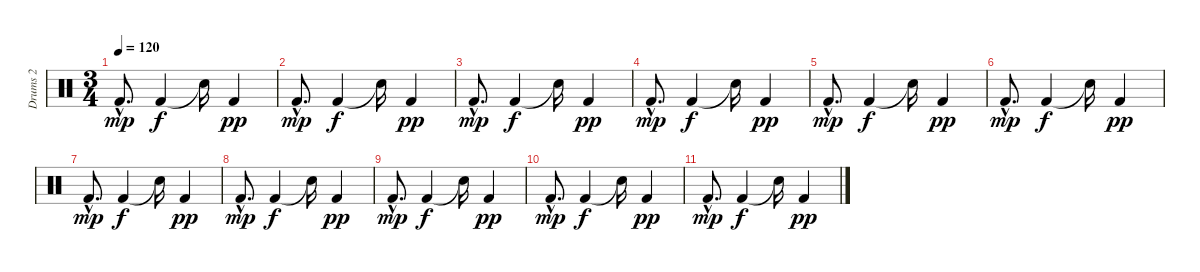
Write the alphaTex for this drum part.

\track ("Drums 2" "Drums 2") {instrument percussion}
\staff {score}
\articulation defaults
\ts (3 4)
\tempo 120
\clef neutral
\ks c "Kick (hit) 2"{hac}.8{d dy mp} "Kick (hit) 2".4{dy f} "Snare (hit)"{t}.16 "Kick (hit) 2".4{dy pp}
|
"Kick (hit) 2"{hac}.8{d dy mp} "Kick (hit) 2".4{dy f} "Snare (hit)"{t}.16 "Kick (hit) 2".4{dy pp} |
"Kick (hit) 2"{hac}.8{d dy mp} "Kick (hit) 2".4{dy f} "Snare (hit)"{t}.16 "Kick (hit) 2".4{dy pp} |
"Kick (hit) 2"{hac}.8{d dy mp} "Kick (hit) 2".4{dy f} "Snare (hit)"{t}.16 "Kick (hit) 2".4{dy pp} |
"Kick (hit) 2"{hac}.8{d dy mp} "Kick (hit) 2".4{dy f} "Snare (hit)"{t}.16 "Kick (hit) 2".4{dy pp} |
"Kick (hit) 2"{hac}.8{d dy mp} "Kick (hit) 2".4{dy f} "Snare (hit)"{t}.16 "Kick (hit) 2".4{dy pp} |
"Kick (hit) 2"{hac}.8{d dy mp} "Kick (hit) 2".4{dy f} "Snare (hit)"{t}.16 "Kick (hit) 2".4{dy pp} |
"Kick (hit) 2"{hac}.8{d dy mp} "Kick (hit) 2".4{dy f} "Snare (hit)"{t}.16 "Kick (hit) 2".4{dy pp} |
"Kick (hit) 2"{hac}.8{d dy mp} "Kick (hit) 2".4{dy f} "Snare (hit)"{t}.16 "Kick (hit) 2".4{dy pp} |
"Kick (hit) 2"{hac}.8{d dy mp} "Kick (hit) 2".4{dy f} "Snare (hit)"{t}.16 "Kick (hit) 2".4{dy pp} |
"Kick (hit) 2"{hac}.8{d dy mp} "Kick (hit) 2".4{dy f} "Snare (hit)"{t}.16 "Kick (hit) 2".4{dy pp}
